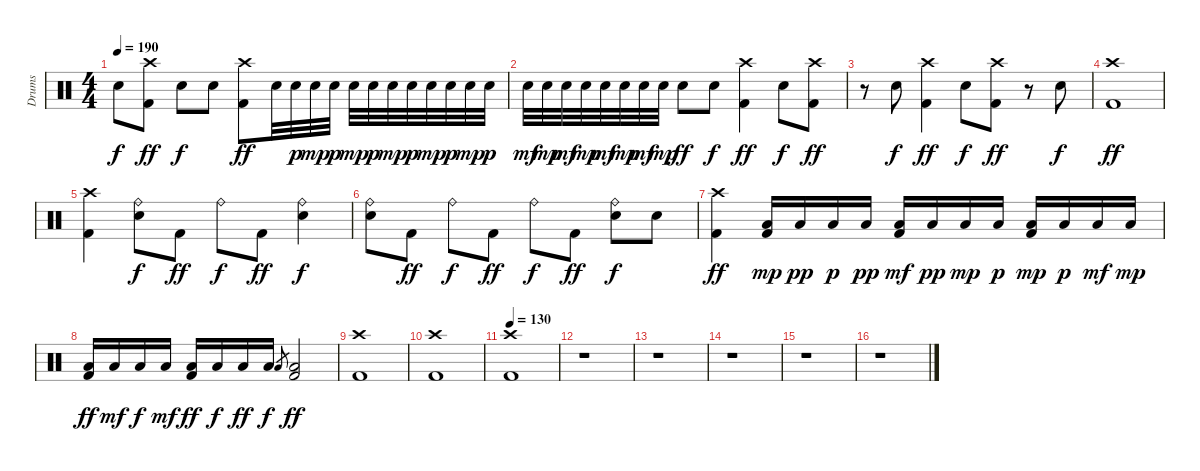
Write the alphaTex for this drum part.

\track ("Drums" "Drums") {instrument percussion}
\staff {score}
\articulation defaults
\ts (4 4)
\tempo 190
\clef neutral
\ks c "Snare (hit) 2".8{dy f}
("Crash high (hit)" "Kick (hit) 2").8{dy ff} "Snare (hit) 2".8{dy f} "Snare (hit) 2".8 ("Crash high (hit)" "Kick (hit) 2").8{dy ff} "Snare (hit) 2".32 "Snare (hit) 2".32{dy p} "Snare (hit) 2".32{dy mp} "Snare (hit) 2".32{dy p} "Snare (hit) 2".32{dy mp} "Snare (hit) 2".32{dy p} "Snare (hit) 2".32{dy mp} "Snare (hit) 2".32{dy p} "Snare (hit) 2".32{dy mp} "Snare (hit) 2".32{dy p} "Snare (hit) 2".32{dy mp} "Snare (hit) 2".32{dy p} |
"Snare (hit) 2".32{dy mf} "Snare (hit) 2".32{dy mp} "Snare (hit) 2".32{dy mf} "Snare (hit) 2".32{dy mp} "Snare (hit) 2".32{dy mf} "Snare (hit) 2".32{dy mp} "Snare (hit) 2".32{dy mf} "Snare (hit) 2".32{dy mp} "Snare (hit) 2".8{dy ff} "Snare (hit) 2".8{dy f} ("Crash high (hit)" "Kick (hit) 2").4{dy ff} "Snare (hit) 2".8{dy f} ("Crash high (hit)" "Kick (hit) 2").8{dy ff} |
r.8 "Snare (hit) 2".8{dy f} ("Crash high (hit)" "Kick (hit) 2").4{dy ff} "Snare (hit) 2".8{dy f} ("Crash high (hit)" "Kick (hit) 2").8{dy ff} r.8 "Snare (hit) 2".8{dy f} |
("Crash high (hit)" "Kick (hit) 2").1{dy ff} |
("Crash high (hit)" "Kick (hit) 2").4 ("Ride (bell)" "Snare (hit) 2").8{dy f} "Kick (hit) 2".8{dy ff} "Ride (bell)".8{dy f} "Kick (hit) 2".8{dy ff} ("Ride (bell)" "Snare (hit) 2").4{dy f} |
("Ride (bell)" "Snare (hit) 2").8 "Kick (hit) 2".8{dy ff} "Ride (bell)".8{dy f} "Kick (hit) 2".8{dy ff} "Ride (bell)".8{dy f} "Kick (hit) 2".8{dy ff} ("Ride (bell)" "Snare (hit) 2").8{dy f} "Snare (hit) 2".8 |
("Crash high (hit)" "Kick (hit) 2").4{dy ff} ("Low Floor Tom (hit)" "Kick (hit) 2").16{dy mp} "Low Floor Tom (hit)".16{dy pp} "Low Floor Tom (hit)".16{dy p} "Low Floor Tom (hit)".16{dy pp} ("Low Floor Tom (hit)" "Kick (hit) 2").16{dy mf} "Low Floor Tom (hit)".16{dy pp} "Low Floor Tom (hit)".16{dy mp} "Low Floor Tom (hit)".16{dy p} ("Low Floor Tom (hit)" "Kick (hit) 2").16{dy mp} "Low Floor Tom (hit)".16{dy p} "Low Floor Tom (hit)".16{dy mf} "Low Floor Tom (hit)".16{dy mp} |
("Low Floor Tom (hit)" "Kick (hit) 2").16{dy ff} "Low Floor Tom (hit)".16{dy mf} "Low Floor Tom (hit)".16{dy f} "Low Floor Tom (hit)".16{dy mf} ("Low Floor Tom (hit)" "Kick (hit) 2").16{dy ff} "Low Floor Tom (hit)".16{dy f} "Low Floor Tom (hit)".16{dy ff} "Low Floor Tom (hit)".16{dy f} "Low Floor Tom (hit)".8{gr} ("Low Floor Tom (hit)" "Kick (hit) 2").2{dy ff} |
("Crash high (hit)" "Kick (hit) 2").1 |
("Crash high (hit)" "Kick (hit) 2").1 |
\tempo 130
("Crash high (hit)" "Kick (hit) 2").1 |
r.1 |
r.1 |
r.1 |
r.1 |
r.1
